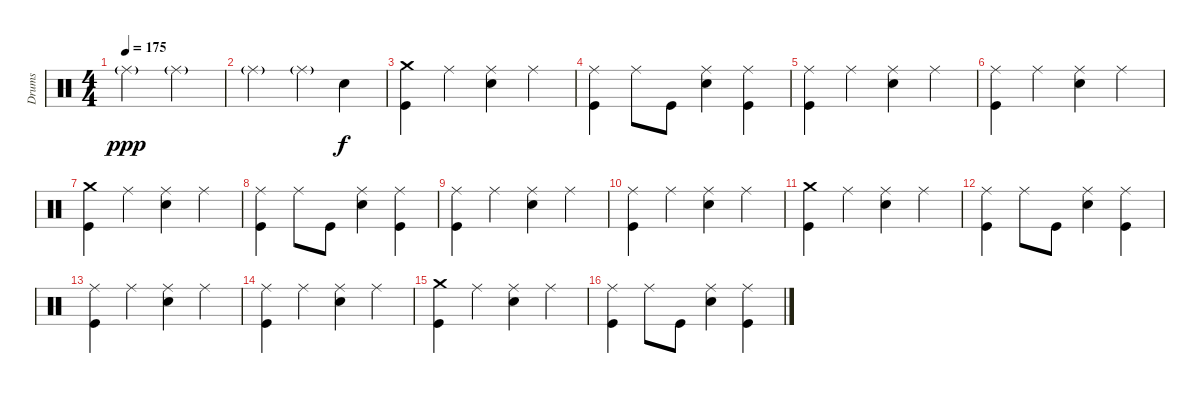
\track ("Drums" "Drums") {instrument percussion}
\staff {score}
\articulation defaults
\ts (4 4)
\tempo 175
\clef neutral
\ks c "Ride (middle)"{g}.2{dy ppp} "Ride (middle)"{g}.2
|
"Ride (middle)"{g}.2 "Ride (middle)"{g}.4 "Snare (hit) 2".4{dy f} |
("Crash medium (hit)" "Kick (hit)").4 "Ride (middle)".4 ("Ride (middle)" "Snare (hit) 2").4 "Ride (middle)".4 |
("Ride (middle)" "Kick (hit)").4 "Ride (middle)".8 "Kick (hit)".8 ("Ride (middle)" "Snare (hit) 2").4 ("Ride (middle)" "Kick (hit)").4 |
("Ride (middle)" "Kick (hit)").4 "Ride (middle)".4 ("Ride (middle)" "Snare (hit) 2").4 "Ride (middle)".4 |
("Ride (middle)" "Kick (hit)").4 "Ride (middle)".4 ("Ride (middle)" "Snare (hit) 2").4 "Ride (middle)".4 |
("Crash medium (hit)" "Kick (hit)").4 "Ride (middle)".4 ("Ride (middle)" "Snare (hit) 2").4 "Ride (middle)".4 |
("Ride (middle)" "Kick (hit)").4 "Ride (middle)".8 "Kick (hit)".8 ("Ride (middle)" "Snare (hit) 2").4 ("Ride (middle)" "Kick (hit)").4 |
("Ride (middle)" "Kick (hit)").4 "Ride (middle)".4 ("Ride (middle)" "Snare (hit) 2").4 "Ride (middle)".4 |
("Ride (middle)" "Kick (hit)").4 "Ride (middle)".4 ("Ride (middle)" "Snare (hit) 2").4 "Ride (middle)".4 |
("Crash medium (hit)" "Kick (hit)").4 "Ride (middle)".4 ("Ride (middle)" "Snare (hit) 2").4 "Ride (middle)".4 |
("Ride (middle)" "Kick (hit)").4 "Ride (middle)".8 "Kick (hit)".8 ("Ride (middle)" "Snare (hit) 2").4 ("Ride (middle)" "Kick (hit)").4 |
("Ride (middle)" "Kick (hit)").4 "Ride (middle)".4 ("Ride (middle)" "Snare (hit) 2").4 "Ride (middle)".4 |
("Ride (middle)" "Kick (hit)").4 "Ride (middle)".4 ("Ride (middle)" "Snare (hit) 2").4 "Ride (middle)".4 |
("Crash medium (hit)" "Kick (hit)").4 "Ride (middle)".4 ("Ride (middle)" "Snare (hit) 2").4 "Ride (middle)".4 |
("Ride (middle)" "Kick (hit)").4 "Ride (middle)".8 "Kick (hit)".8 ("Ride (middle)" "Snare (hit) 2").4 ("Ride (middle)" "Kick (hit)").4
